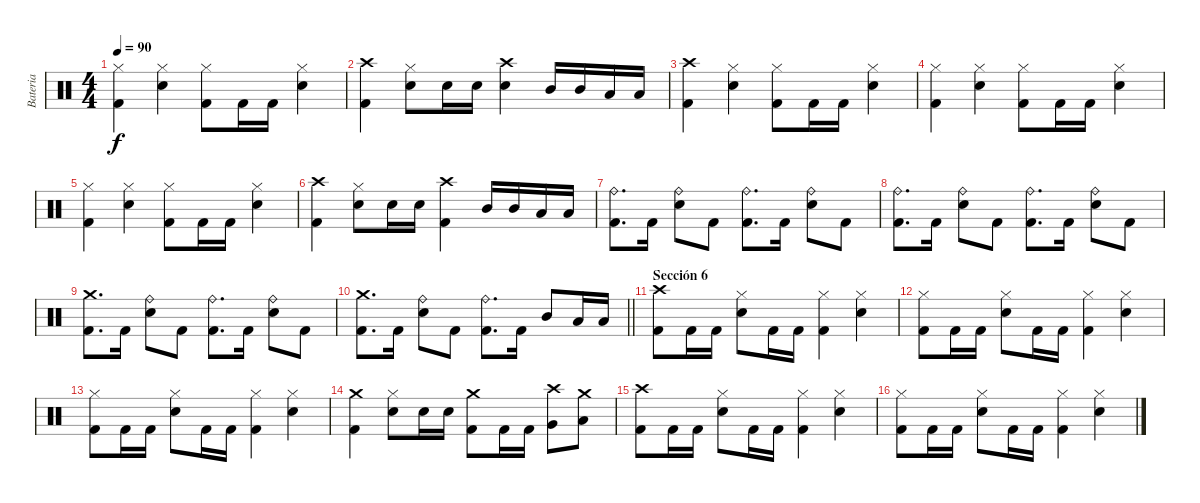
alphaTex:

\track ("Bateria" "Bateria") {instrument percussion}
\staff {score}
\articulation defaults
\ts (4 4)
\tempo 90
\clef neutral
\ks c
("Hi-Hat (closed)" "Kick (hit) 2").4{dy f} ("Hi-Hat (closed)" "Snare (hit) 2").4 ("Hi-Hat (closed)" "Kick (hit) 2").8 "Kick (hit) 2".16 "Kick (hit) 2".16 ("Hi-Hat (closed)" "Snare (hit) 2").4 |
("Crash high (hit)" "Kick (hit) 2").4 ("Hi-Hat (closed)" "Snare (hit) 2").8 "Snare (hit) 2".16 "Snare (hit) 2".16 ("Crash high (hit)" "Snare (hit) 2").4 "Mid Tom (hit)".16 "Mid Tom (hit)".16 "Low Tom (hit)".16 "Low Tom (hit)".16 |
("Crash high (hit)" "Kick (hit) 2").4 ("Hi-Hat (closed)" "Snare (hit) 2").4 ("Hi-Hat (closed)" "Kick (hit) 2").8 "Kick (hit) 2".16 "Kick (hit) 2".16 ("Hi-Hat (closed)" "Snare (hit) 2").4 |
("Hi-Hat (closed)" "Kick (hit) 2").4 ("Hi-Hat (closed)" "Snare (hit) 2").4 ("Hi-Hat (closed)" "Kick (hit) 2").8 "Kick (hit) 2".16 "Kick (hit) 2".16 ("Hi-Hat (closed)" "Snare (hit) 2").4 |
("Hi-Hat (closed)" "Kick (hit) 2").4 ("Hi-Hat (closed)" "Snare (hit) 2").4 ("Hi-Hat (closed)" "Kick (hit) 2").8 "Kick (hit) 2".16 "Kick (hit) 2".16 ("Hi-Hat (closed)" "Snare (hit) 2").4 |
("Crash high (hit)" "Kick (hit) 2").4 ("Hi-Hat (closed)" "Snare (hit) 2").8 "Snare (hit) 2".16 "Snare (hit) 2".16 ("Crash high (hit)" "Kick (hit) 2").4 "Mid Tom (hit)".16 "Mid Tom (hit)".16 "Low Tom (hit)".16 "Low Tom (hit)".16 |
("Ride (bell)" "Kick (hit) 2").8{d} "Kick (hit) 2".16 ("Ride (bell)" "Snare (hit) 2").8 "Kick (hit) 2".8 ("Ride (bell)" "Kick (hit) 2").8{d} "Kick (hit) 2".16 ("Ride (bell)" "Snare (hit) 2").8 "Kick (hit) 2".8 |
("Ride (bell)" "Kick (hit) 2").8{d} "Kick (hit) 2".16 ("Ride (bell)" "Snare (hit) 2").8 "Kick (hit) 2".8 ("Ride (bell)" "Kick (hit) 2").8{d} "Kick (hit) 2".16 ("Ride (bell)" "Snare (hit) 2").8 "Kick (hit) 2".8 |
("Crash medium (hit)" "Kick (hit) 2").8{d} "Kick (hit) 2".16 ("Ride (bell)" "Snare (hit) 2").8 "Kick (hit) 2".8 ("Ride (bell)" "Kick (hit) 2").8{d} "Kick (hit) 2".16 ("Ride (bell)" "Snare (hit) 2").8 "Kick (hit) 2".8 |
\barLineRight lightlight
("Crash medium (hit)" "Kick (hit) 2").8{d} "Kick (hit) 2".16 ("Ride (bell)" "Snare (hit) 2").8 "Kick (hit) 2".8 ("Ride (bell)" "Kick (hit) 2").8{d} "Kick (hit) 2".16 "Mid Tom (hit)".8 "Low Tom (hit)".16 "Low Tom (hit)".16 |
\section ("" "Sección 6")
("Crash high (hit)" "Kick (hit) 2").8 "Kick (hit) 2".16 "Kick (hit) 2".16 ("Hi-Hat (closed)" "Snare (hit) 2").8 "Kick (hit) 2".16 "Kick (hit) 2".16 ("Hi-Hat (closed)" "Kick (hit) 2").4 ("Hi-Hat (closed)" "Snare (hit) 2").4 |
("Hi-Hat (closed)" "Kick (hit) 2").8 "Kick (hit) 2".16 "Kick (hit) 2".16 ("Hi-Hat (closed)" "Snare (hit) 2").8 "Kick (hit) 2".16 "Kick (hit) 2".16 ("Hi-Hat (closed)" "Kick (hit) 2").4 ("Hi-Hat (closed)" "Snare (hit) 2").4 |
("Hi-Hat (closed)" "Kick (hit) 2").8 "Kick (hit) 2".16 "Kick (hit) 2".16 ("Hi-Hat (closed)" "Snare (hit) 2").8 "Kick (hit) 2".16 "Kick (hit) 2".16 ("Hi-Hat (closed)" "Kick (hit) 2").4 ("Hi-Hat (closed)" "Snare (hit) 2").4 |
("Crash medium (hit)" "Kick (hit) 2").4 ("Hi-Hat (closed)" "Snare (hit) 2").8 "Snare (hit) 2".16 "Snare (hit) 2".16 ("Crash medium (hit)" "Kick (hit) 2").8 "Kick (hit) 2".16 "Kick (hit) 2".16 ("Crash high (hit)" "Very Low Tom (hit)").8 ("Crash medium (hit)" "Low Floor Tom (hit)").8 |
("Crash high (hit)" "Kick (hit) 2").8 "Kick (hit) 2".16 "Kick (hit) 2".16 ("Hi-Hat (closed)" "Snare (hit) 2").8 "Kick (hit) 2".16 "Kick (hit) 2".16 ("Hi-Hat (closed)" "Kick (hit) 2").4 ("Hi-Hat (closed)" "Snare (hit) 2").4 |
("Hi-Hat (closed)" "Kick (hit) 2").8 "Kick (hit) 2".16 "Kick (hit) 2".16 ("Hi-Hat (closed)" "Snare (hit) 2").8 "Kick (hit) 2".16 "Kick (hit) 2".16 ("Hi-Hat (closed)" "Kick (hit) 2").4 ("Hi-Hat (closed)" "Snare (hit) 2").4
